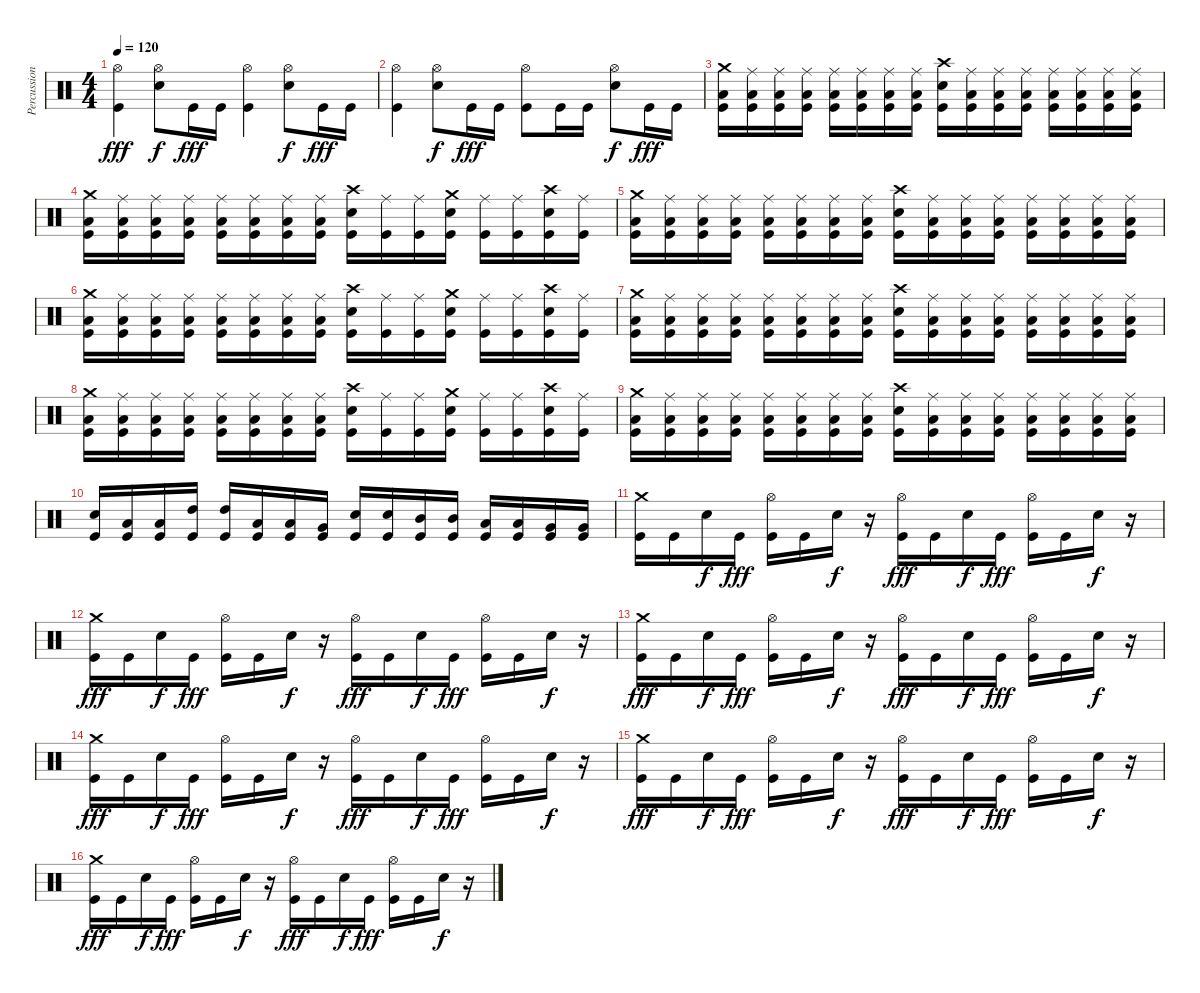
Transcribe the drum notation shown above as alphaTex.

\track ("Percussion" "Percussion") {instrument percussion}
\staff {score}
\articulation defaults
\ts (4 4)
\tempo 120
\clef neutral
\ks c
("Hi-Hat (open)" "Kick (hit)").4{dy fff} ("Hi-Hat (open)" "Electric Snare (hit)").8{dy f} "Kick (hit)".16{dy fff} "Kick (hit)".16 ("Hi-Hat (open)" "Kick (hit)").4 ("Hi-Hat (open)" "Electric Snare (hit)").8{dy f} "Kick (hit)".16{dy fff} "Kick (hit)".16 |
("Hi-Hat (open)" "Kick (hit)").4 ("Hi-Hat (open)" "Electric Snare (hit)").8{dy f} "Kick (hit)".16{dy fff} "Kick (hit)".16 ("Hi-Hat (open)" "Kick (hit)").8 "Kick (hit)".16 "Kick (hit)".16 ("Hi-Hat (open)" "Electric Snare (hit)").8{dy f} "Kick (hit)".16{dy fff} "Kick (hit)".16 |
("Crash medium (hit)" "Low Floor Tom (hit)" "Kick (hit)").16 ("Ride (middle)" "Low Floor Tom (hit)" "Kick (hit)").16 ("Ride (middle)" "Low Floor Tom (hit)" "Kick (hit)").16 ("Ride (middle)" "Low Floor Tom (hit)" "Kick (hit)").16 ("Ride (middle)" "Low Floor Tom (hit)" "Kick (hit)").16 ("Ride (middle)" "Low Floor Tom (hit)" "Kick (hit)").16 ("Ride (middle)" "Low Floor Tom (hit)" "Kick (hit)").16 ("Ride (middle)" "Low Floor Tom (hit)" "Kick (hit)").16 ("Crash high (hit)" "Electric Snare (hit)" "Kick (hit)").16 ("Ride (middle)" "Low Floor Tom (hit)" "Kick (hit)").16 ("Ride (middle)" "Low Floor Tom (hit)" "Kick (hit)").16 ("Ride (middle)" "Low Floor Tom (hit)" "Kick (hit)").16 ("Ride (middle)" "Low Floor Tom (hit)" "Kick (hit)").16 ("Ride (middle)" "Low Floor Tom (hit)" "Kick (hit)").16 ("Ride (middle)" "Low Floor Tom (hit)" "Kick (hit)").16 ("Ride (middle)" "Low Floor Tom (hit)" "Kick (hit)").16 |
("Crash medium (hit)" "Low Floor Tom (hit)" "Kick (hit)").16 ("Ride (middle)" "Low Floor Tom (hit)" "Kick (hit)").16 ("Ride (middle)" "Low Floor Tom (hit)" "Kick (hit)").16 ("Ride (middle)" "Low Floor Tom (hit)" "Kick (hit)").16 ("Ride (middle)" "Low Floor Tom (hit)" "Kick (hit)").16 ("Ride (middle)" "Low Floor Tom (hit)" "Kick (hit)").16 ("Ride (middle)" "Low Floor Tom (hit)" "Kick (hit)").16 ("Ride (middle)" "Low Floor Tom (hit)" "Kick (hit)").16 ("Crash high (hit)" "Electric Snare (hit)" "Kick (hit)").16 ("Ride (middle)" "Kick (hit)").16 ("Ride (middle)" "Kick (hit)").16 ("Crash medium (hit)" "Electric Snare (hit)" "Kick (hit)").16 ("Ride (middle)" "Kick (hit)").16 ("Ride (middle)" "Kick (hit)").16 ("Crash high (hit)" "Electric Snare (hit)" "Kick (hit)").16 ("Ride (middle)" "Kick (hit)").16 |
("Crash medium (hit)" "Low Floor Tom (hit)" "Kick (hit)").16 ("Ride (middle)" "Low Floor Tom (hit)" "Kick (hit)").16 ("Ride (middle)" "Low Floor Tom (hit)" "Kick (hit)").16 ("Ride (middle)" "Low Floor Tom (hit)" "Kick (hit)").16 ("Ride (middle)" "Low Floor Tom (hit)" "Kick (hit)").16 ("Ride (middle)" "Low Floor Tom (hit)" "Kick (hit)").16 ("Ride (middle)" "Low Floor Tom (hit)" "Kick (hit)").16 ("Ride (middle)" "Low Floor Tom (hit)" "Kick (hit)").16 ("Crash high (hit)" "Electric Snare (hit)" "Kick (hit)").16 ("Ride (middle)" "Low Floor Tom (hit)" "Kick (hit)").16 ("Ride (middle)" "Low Floor Tom (hit)" "Kick (hit)").16 ("Ride (middle)" "Low Floor Tom (hit)" "Kick (hit)").16 ("Ride (middle)" "Low Floor Tom (hit)" "Kick (hit)").16 ("Ride (middle)" "Low Floor Tom (hit)" "Kick (hit)").16 ("Ride (middle)" "Low Floor Tom (hit)" "Kick (hit)").16 ("Ride (middle)" "Low Floor Tom (hit)" "Kick (hit)").16 |
("Crash medium (hit)" "Low Floor Tom (hit)" "Kick (hit)").16 ("Ride (middle)" "Low Floor Tom (hit)" "Kick (hit)").16 ("Ride (middle)" "Low Floor Tom (hit)" "Kick (hit)").16 ("Ride (middle)" "Low Floor Tom (hit)" "Kick (hit)").16 ("Ride (middle)" "Low Floor Tom (hit)" "Kick (hit)").16 ("Ride (middle)" "Low Floor Tom (hit)" "Kick (hit)").16 ("Ride (middle)" "Low Floor Tom (hit)" "Kick (hit)").16 ("Ride (middle)" "Low Floor Tom (hit)" "Kick (hit)").16 ("Crash high (hit)" "Electric Snare (hit)" "Kick (hit)").16 ("Ride (middle)" "Kick (hit)").16 ("Ride (middle)" "Kick (hit)").16 ("Crash medium (hit)" "Electric Snare (hit)" "Kick (hit)").16 ("Ride (middle)" "Kick (hit)").16 ("Ride (middle)" "Kick (hit)").16 ("Crash high (hit)" "Electric Snare (hit)" "Kick (hit)").16 ("Ride (middle)" "Kick (hit)").16 |
("Crash medium (hit)" "Low Floor Tom (hit)" "Kick (hit)").16 ("Ride (middle)" "Low Floor Tom (hit)" "Kick (hit)").16 ("Ride (middle)" "Low Floor Tom (hit)" "Kick (hit)").16 ("Ride (middle)" "Low Floor Tom (hit)" "Kick (hit)").16 ("Ride (middle)" "Low Floor Tom (hit)" "Kick (hit)").16 ("Ride (middle)" "Low Floor Tom (hit)" "Kick (hit)").16 ("Ride (middle)" "Low Floor Tom (hit)" "Kick (hit)").16 ("Ride (middle)" "Low Floor Tom (hit)" "Kick (hit)").16 ("Crash high (hit)" "Electric Snare (hit)" "Kick (hit)").16 ("Ride (middle)" "Low Floor Tom (hit)" "Kick (hit)").16 ("Ride (middle)" "Low Floor Tom (hit)" "Kick (hit)").16 ("Ride (middle)" "Low Floor Tom (hit)" "Kick (hit)").16 ("Ride (middle)" "Low Floor Tom (hit)" "Kick (hit)").16 ("Ride (middle)" "Low Floor Tom (hit)" "Kick (hit)").16 ("Ride (middle)" "Low Floor Tom (hit)" "Kick (hit)").16 ("Ride (middle)" "Low Floor Tom (hit)" "Kick (hit)").16 |
("Crash medium (hit)" "Low Floor Tom (hit)" "Kick (hit)").16 ("Ride (middle)" "Low Floor Tom (hit)" "Kick (hit)").16 ("Ride (middle)" "Low Floor Tom (hit)" "Kick (hit)").16 ("Ride (middle)" "Low Floor Tom (hit)" "Kick (hit)").16 ("Ride (middle)" "Low Floor Tom (hit)" "Kick (hit)").16 ("Ride (middle)" "Low Floor Tom (hit)" "Kick (hit)").16 ("Ride (middle)" "Low Floor Tom (hit)" "Kick (hit)").16 ("Ride (middle)" "Low Floor Tom (hit)" "Kick (hit)").16 ("Crash high (hit)" "Electric Snare (hit)" "Kick (hit)").16 ("Ride (middle)" "Kick (hit)").16 ("Ride (middle)" "Kick (hit)").16 ("Crash medium (hit)" "Electric Snare (hit)" "Kick (hit)").16 ("Ride (middle)" "Kick (hit)").16 ("Ride (middle)" "Kick (hit)").16 ("Crash high (hit)" "Electric Snare (hit)" "Kick (hit)").16 ("Ride (middle)" "Kick (hit)").16 |
("Crash medium (hit)" "Low Floor Tom (hit)" "Kick (hit)").16 ("Ride (middle)" "Low Floor Tom (hit)" "Kick (hit)").16 ("Ride (middle)" "Low Floor Tom (hit)" "Kick (hit)").16 ("Ride (middle)" "Low Floor Tom (hit)" "Kick (hit)").16 ("Ride (middle)" "Low Floor Tom (hit)" "Kick (hit)").16 ("Ride (middle)" "Low Floor Tom (hit)" "Kick (hit)").16 ("Ride (middle)" "Low Floor Tom (hit)" "Kick (hit)").16 ("Ride (middle)" "Low Floor Tom (hit)" "Kick (hit)").16 ("Crash high (hit)" "Electric Snare (hit)" "Kick (hit)").16 ("Ride (middle)" "Low Floor Tom (hit)" "Kick (hit)").16 ("Ride (middle)" "Low Floor Tom (hit)" "Kick (hit)").16 ("Ride (middle)" "Low Floor Tom (hit)" "Kick (hit)").16 ("Ride (middle)" "Low Floor Tom (hit)" "Kick (hit)").16 ("Ride (middle)" "Low Floor Tom (hit)" "Kick (hit)").16 ("Ride (middle)" "Low Floor Tom (hit)" "Kick (hit)").16 ("Ride (middle)" "Low Floor Tom (hit)" "Kick (hit)").16 |
("Electric Snare (hit)" "Kick (hit)").16 ("Low Floor Tom (hit)" "Kick (hit)").16 ("Low Floor Tom (hit)" "Kick (hit)").16 ("High Tom (hit)" "Kick (hit)").16 ("High Tom (hit)" "Kick (hit)").16 ("Low Tom (hit)" "Kick (hit)").16 ("Low Tom (hit)" "Kick (hit)").16 ("Very Low Tom (hit)" "Kick (hit)").16 ("Electric Snare (hit)" "Kick (hit)").16 ("Electric Snare (hit)" "Kick (hit)").16 ("Mid Tom (hit)" "Kick (hit)").16 ("Mid Tom (hit)" "Kick (hit)").16 ("Low Tom (hit)" "Kick (hit)").16 ("Low Tom (hit)" "Kick (hit)").16 ("Very Low Tom (hit)" "Kick (hit)").16 ("Very Low Tom (hit)" "Kick (hit)").16 |
("Crash medium (hit)" "Kick (hit)").16 "Kick (hit)".16 "Electric Snare (hit)".16{dy f} "Kick (hit)".16{dy fff} ("Hi-Hat (open)" "Kick (hit)").16 "Kick (hit)".16 "Electric Snare (hit)".16{dy f} r.16 ("Hi-Hat (open)" "Kick (hit)").16{dy fff} "Kick (hit)".16 "Electric Snare (hit)".16{dy f} "Kick (hit)".16{dy fff} ("Hi-Hat (open)" "Kick (hit)").16 "Kick (hit)".16 "Electric Snare (hit)".16{dy f} r.16 |
("Crash medium (hit)" "Kick (hit)").16{dy fff} "Kick (hit)".16 "Electric Snare (hit)".16{dy f} "Kick (hit)".16{dy fff} ("Hi-Hat (open)" "Kick (hit)").16 "Kick (hit)".16 "Electric Snare (hit)".16{dy f} r.16 ("Hi-Hat (open)" "Kick (hit)").16{dy fff} "Kick (hit)".16 "Electric Snare (hit)".16{dy f} "Kick (hit)".16{dy fff} ("Hi-Hat (open)" "Kick (hit)").16 "Kick (hit)".16 "Electric Snare (hit)".16{dy f} r.16 |
("Crash medium (hit)" "Kick (hit)").16{dy fff} "Kick (hit)".16 "Electric Snare (hit)".16{dy f} "Kick (hit)".16{dy fff} ("Hi-Hat (open)" "Kick (hit)").16 "Kick (hit)".16 "Electric Snare (hit)".16{dy f} r.16 ("Hi-Hat (open)" "Kick (hit)").16{dy fff} "Kick (hit)".16 "Electric Snare (hit)".16{dy f} "Kick (hit)".16{dy fff} ("Hi-Hat (open)" "Kick (hit)").16 "Kick (hit)".16 "Electric Snare (hit)".16{dy f} r.16 |
("Crash medium (hit)" "Kick (hit)").16{dy fff} "Kick (hit)".16 "Electric Snare (hit)".16{dy f} "Kick (hit)".16{dy fff} ("Hi-Hat (open)" "Kick (hit)").16 "Kick (hit)".16 "Electric Snare (hit)".16{dy f} r.16 ("Hi-Hat (open)" "Kick (hit)").16{dy fff} "Kick (hit)".16 "Electric Snare (hit)".16{dy f} "Kick (hit)".16{dy fff} ("Hi-Hat (open)" "Kick (hit)").16 "Kick (hit)".16 "Electric Snare (hit)".16{dy f} r.16 |
("Crash medium (hit)" "Kick (hit)").16{dy fff} "Kick (hit)".16 "Electric Snare (hit)".16{dy f} "Kick (hit)".16{dy fff} ("Hi-Hat (open)" "Kick (hit)").16 "Kick (hit)".16 "Electric Snare (hit)".16{dy f} r.16 ("Hi-Hat (open)" "Kick (hit)").16{dy fff} "Kick (hit)".16 "Electric Snare (hit)".16{dy f} "Kick (hit)".16{dy fff} ("Hi-Hat (open)" "Kick (hit)").16 "Kick (hit)".16 "Electric Snare (hit)".16{dy f} r.16 |
("Crash medium (hit)" "Kick (hit)").16{dy fff} "Kick (hit)".16 "Electric Snare (hit)".16{dy f} "Kick (hit)".16{dy fff} ("Hi-Hat (open)" "Kick (hit)").16 "Kick (hit)".16 "Electric Snare (hit)".16{dy f} r.16 ("Hi-Hat (open)" "Kick (hit)").16{dy fff} "Kick (hit)".16 "Electric Snare (hit)".16{dy f} "Kick (hit)".16{dy fff} ("Hi-Hat (open)" "Kick (hit)").16 "Kick (hit)".16 "Electric Snare (hit)".16{dy f} r.16
